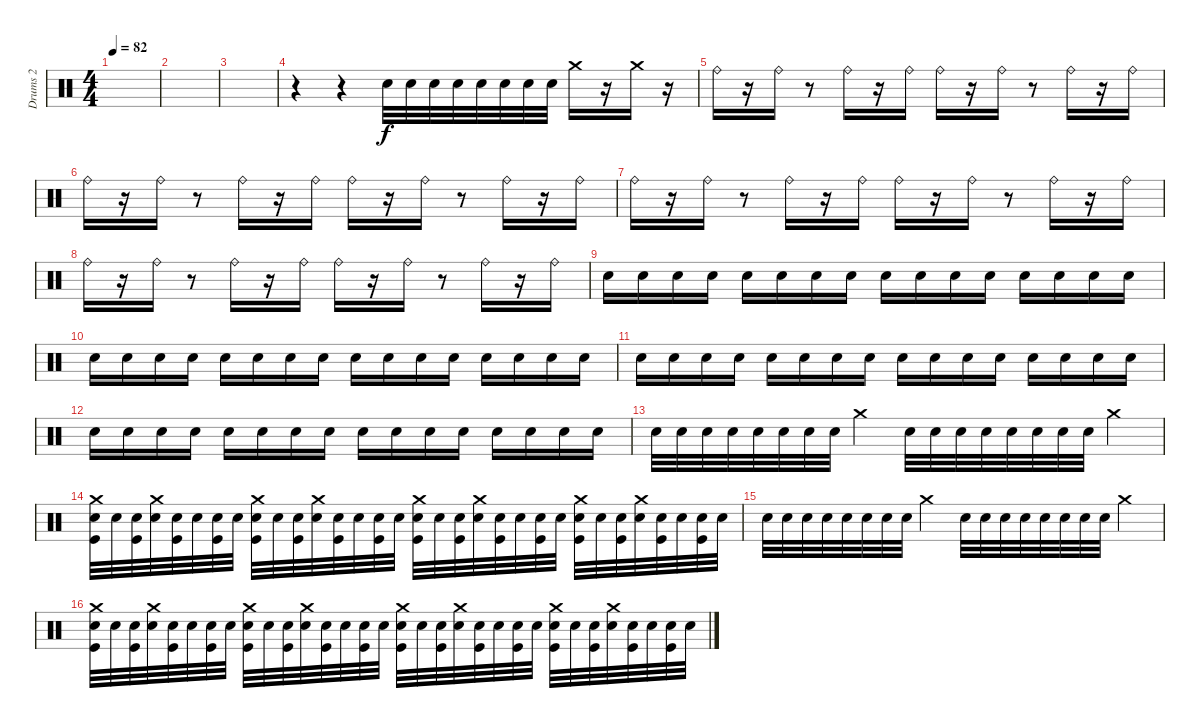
\track ("Drums 2" "Drums 2") {instrument percussion}
\staff {score}
\articulation defaults
\ts (4 4)
\tempo 82
\clef neutral
\ks c
|
|
|
r.4 r.4 "Snare (hit) 2".32 "Snare (hit) 2".32 "Snare (hit) 2".32 "Snare (hit) 2".32 "Snare (hit) 2".32 "Snare (hit) 2".32 "Snare (hit) 2".32 "Snare (hit) 2".32 "Crash medium (hit)".16 r.16 "Crash medium (hit)".16 r.16 |
"Ride (bell)".16 r.16 "Ride (bell)".16 r.8 "Ride (bell)".16 r.16 "Ride (bell)".16 "Ride (bell)".16 r.16 "Ride (bell)".16 r.8 "Ride (bell)".16 r.16 "Ride (bell)".16 |
"Ride (bell)".16 r.16 "Ride (bell)".16 r.8 "Ride (bell)".16 r.16 "Ride (bell)".16 "Ride (bell)".16 r.16 "Ride (bell)".16 r.8 "Ride (bell)".16 r.16 "Ride (bell)".16 |
"Ride (bell)".16 r.16 "Ride (bell)".16 r.8 "Ride (bell)".16 r.16 "Ride (bell)".16 "Ride (bell)".16 r.16 "Ride (bell)".16 r.8 "Ride (bell)".16 r.16 "Ride (bell)".16 |
"Ride (bell)".16 r.16 "Ride (bell)".16 r.8 "Ride (bell)".16 r.16 "Ride (bell)".16 "Ride (bell)".16 r.16 "Ride (bell)".16 r.8 "Ride (bell)".16 r.16 "Ride (bell)".16 |
"Snare (hit) 2".16 "Snare (hit) 2".16 "Snare (hit) 2".16 "Snare (hit) 2".16 "Snare (hit) 2".16 "Snare (hit) 2".16 "Snare (hit) 2".16 "Snare (hit) 2".16 "Snare (hit) 2".16 "Snare (hit) 2".16 "Snare (hit) 2".16 "Snare (hit) 2".16 "Snare (hit) 2".16 "Snare (hit) 2".16 "Snare (hit) 2".16 "Snare (hit) 2".16 |
"Electric Snare (hit)".16 "Electric Snare (hit)".16 "Electric Snare (hit)".16 "Electric Snare (hit)".16 "Electric Snare (hit)".16 "Electric Snare (hit)".16 "Electric Snare (hit)".16 "Electric Snare (hit)".16 "Electric Snare (hit)".16 "Electric Snare (hit)".16 "Electric Snare (hit)".16 "Electric Snare (hit)".16 "Electric Snare (hit)".16 "Electric Snare (hit)".16 "Electric Snare (hit)".16 "Electric Snare (hit)".16 |
"Snare (hit) 2".16 "Snare (hit) 2".16 "Snare (hit) 2".16 "Snare (hit) 2".16 "Snare (hit) 2".16 "Snare (hit) 2".16 "Snare (hit) 2".16 "Snare (hit) 2".16 "Snare (hit) 2".16 "Snare (hit) 2".16 "Snare (hit) 2".16 "Snare (hit) 2".16 "Snare (hit) 2".16 "Snare (hit) 2".16 "Snare (hit) 2".16 "Snare (hit) 2".16 |
"Electric Snare (hit)".16 "Electric Snare (hit)".16 "Electric Snare (hit)".16 "Electric Snare (hit)".16 "Electric Snare (hit)".16 "Electric Snare (hit)".16 "Electric Snare (hit)".16 "Electric Snare (hit)".16 "Electric Snare (hit)".16 "Electric Snare (hit)".16 "Electric Snare (hit)".16 "Electric Snare (hit)".16 "Electric Snare (hit)".16 "Electric Snare (hit)".16 "Electric Snare (hit)".16 "Electric Snare (hit)".16 |
"Snare (hit) 2".32 "Snare (hit) 2".32 "Snare (hit) 2".32 "Snare (hit) 2".32 "Snare (hit) 2".32 "Snare (hit) 2".32 "Snare (hit) 2".32 "Snare (hit) 2".32 "Crash medium (hit)".4 "Snare (hit) 2".32 "Snare (hit) 2".32 "Snare (hit) 2".32 "Snare (hit) 2".32 "Snare (hit) 2".32 "Snare (hit) 2".32 "Snare (hit) 2".32 "Snare (hit) 2".32 "Crash medium (hit)".4 |
("Kick (hit)" "Crash medium (hit)" "Snare (hit) 2").32 "Snare (hit) 2".32 ("Kick (hit)" "Snare (hit) 2").32 ("Crash medium (hit)" "Snare (hit) 2").32 ("Kick (hit)" "Snare (hit) 2").32 "Snare (hit) 2".32 ("Kick (hit)" "Snare (hit) 2").32 "Snare (hit) 2".32 ("Kick (hit)" "Crash medium (hit)" "Snare (hit) 2").32 "Snare (hit) 2".32 ("Kick (hit)" "Snare (hit) 2").32 ("Crash medium (hit)" "Snare (hit) 2").32 ("Kick (hit)" "Snare (hit) 2").32 "Snare (hit) 2".32 ("Kick (hit)" "Snare (hit) 2").32 "Snare (hit) 2".32 ("Kick (hit)" "Crash medium (hit)" "Snare (hit) 2").32 "Snare (hit) 2".32 ("Kick (hit)" "Snare (hit) 2").32 ("Crash medium (hit)" "Snare (hit) 2").32 ("Kick (hit)" "Snare (hit) 2").32 "Snare (hit) 2".32 ("Kick (hit)" "Snare (hit) 2").32 "Snare (hit) 2".32 ("Kick (hit)" "Crash medium (hit)" "Snare (hit) 2").32 "Snare (hit) 2".32 ("Kick (hit)" "Snare (hit) 2").32 ("Crash medium (hit)" "Snare (hit) 2").32 ("Kick (hit)" "Snare (hit) 2").32 "Snare (hit) 2".32 ("Kick (hit)" "Snare (hit) 2").32 "Snare (hit) 2".32 |
"Snare (hit) 2".32 "Snare (hit) 2".32 "Snare (hit) 2".32 "Snare (hit) 2".32 "Snare (hit) 2".32 "Snare (hit) 2".32 "Snare (hit) 2".32 "Snare (hit) 2".32 "Crash medium (hit)".4 "Snare (hit) 2".32 "Snare (hit) 2".32 "Snare (hit) 2".32 "Snare (hit) 2".32 "Snare (hit) 2".32 "Snare (hit) 2".32 "Snare (hit) 2".32 "Snare (hit) 2".32 "Crash medium (hit)".4 |
("Kick (hit)" "Crash medium (hit)" "Snare (hit) 2").32 "Snare (hit) 2".32 ("Kick (hit)" "Snare (hit) 2").32 ("Crash medium (hit)" "Snare (hit) 2").32 ("Kick (hit)" "Snare (hit) 2").32 "Snare (hit) 2".32 ("Kick (hit)" "Snare (hit) 2").32 "Snare (hit) 2".32 ("Kick (hit)" "Crash medium (hit)" "Snare (hit) 2").32 "Snare (hit) 2".32 ("Kick (hit)" "Snare (hit) 2").32 ("Crash medium (hit)" "Snare (hit) 2").32 ("Kick (hit)" "Snare (hit) 2").32 "Snare (hit) 2".32 ("Kick (hit)" "Snare (hit) 2").32 "Snare (hit) 2".32 ("Kick (hit)" "Crash medium (hit)" "Snare (hit) 2").32 "Snare (hit) 2".32 ("Kick (hit)" "Snare (hit) 2").32 ("Crash medium (hit)" "Snare (hit) 2").32 ("Kick (hit)" "Snare (hit) 2").32 "Snare (hit) 2".32 ("Kick (hit)" "Snare (hit) 2").32 "Snare (hit) 2".32 ("Kick (hit)" "Crash medium (hit)" "Snare (hit) 2").32 "Snare (hit) 2".32 ("Kick (hit)" "Snare (hit) 2").32 ("Crash medium (hit)" "Snare (hit) 2").32 ("Kick (hit)" "Snare (hit) 2").32 "Snare (hit) 2".32 ("Kick (hit)" "Snare (hit) 2").32 "Snare (hit) 2".32
